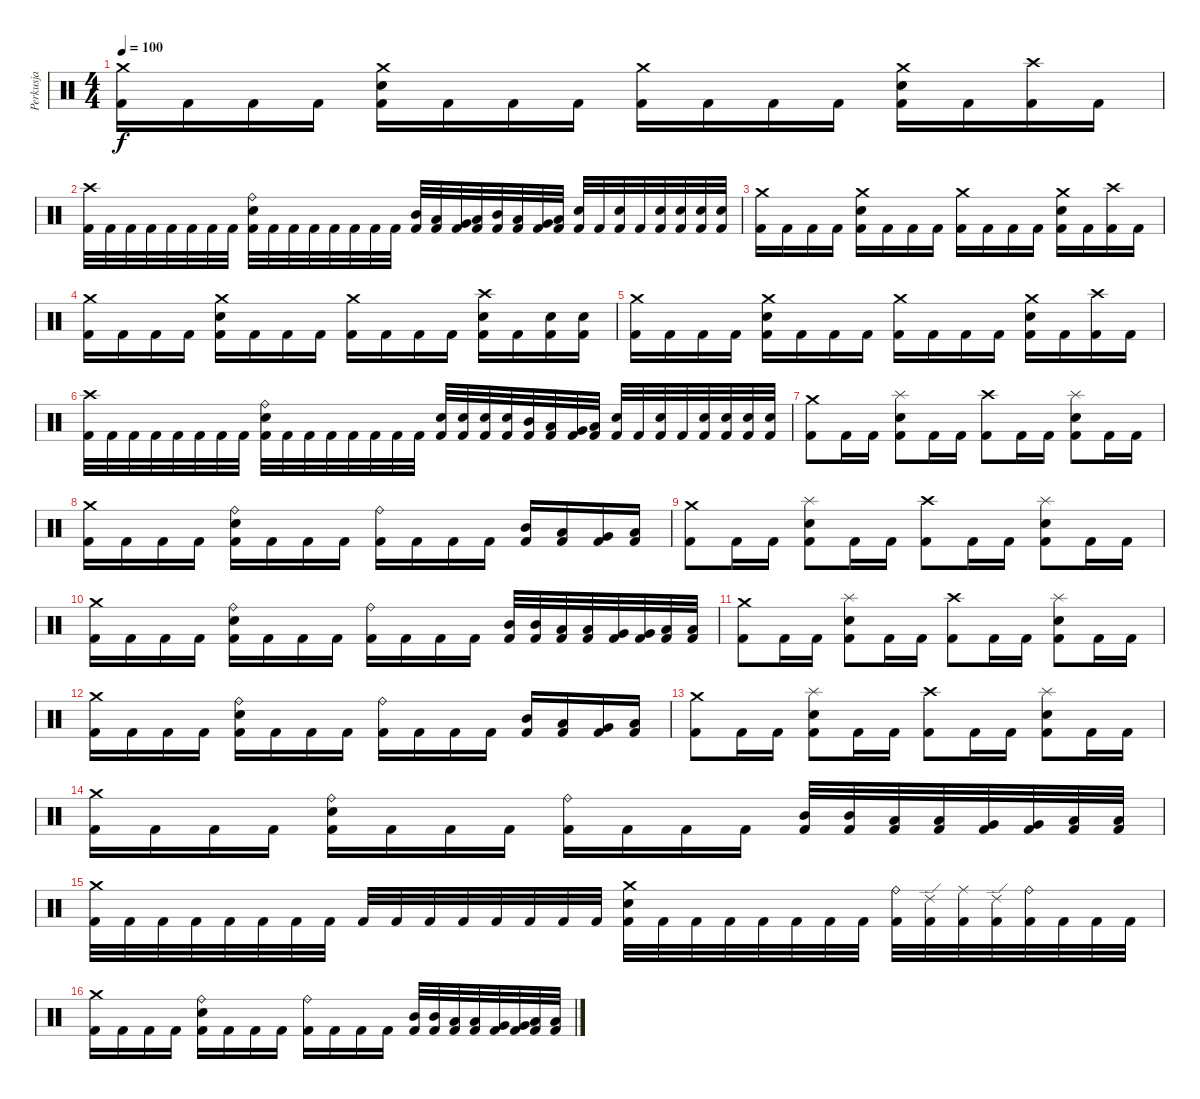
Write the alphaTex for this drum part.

\track ("Perkusja" "Perkusja") {instrument percussion}
\staff {score}
\articulation defaults
\ts (4 4)
\tempo 100
\clef neutral
\ks c
("Crash medium (hit)" "Kick (hit) 2").16{dy f} "Kick (hit) 2".16 "Kick (hit) 2".16 "Kick (hit) 2".16 ("Crash medium (hit)" "Electric Snare (hit)" "Kick (hit) 2").16 "Kick (hit) 2".16 "Kick (hit) 2".16 "Kick (hit) 2".16 ("Crash medium (hit)" "Kick (hit) 2").16 "Kick (hit) 2".16 "Kick (hit) 2".16 "Kick (hit) 2".16 ("Crash medium (hit)" "Electric Snare (hit)" "Kick (hit) 2").16 "Kick (hit) 2".16 ("Crash high (hit)" "Kick (hit) 2").16 "Kick (hit) 2".16 |
("Crash high (hit)" "Kick (hit) 2").32 "Kick (hit) 2".32 "Kick (hit) 2".32 "Kick (hit) 2".32 "Kick (hit) 2".32 "Kick (hit) 2".32 "Kick (hit) 2".32 "Kick (hit) 2".32 ("Ride (bell)" "Electric Snare (hit)" "Kick (hit) 2").32 "Kick (hit) 2".32 "Kick (hit) 2".32 "Kick (hit) 2".32 "Kick (hit) 2".32 "Kick (hit) 2".32 "Kick (hit) 2".32 "Kick (hit) 2".32 ("Mid Tom (hit)" "Kick (hit) 2").32 ("Low Tom (hit)" "Kick (hit) 2").32 ("Very Low Tom (hit)" "Kick (hit) 2").32 ("Low Floor Tom (hit)" "Kick (hit) 2").32 ("Mid Tom (hit)" "Kick (hit) 2").32 ("Low Tom (hit)" "Kick (hit) 2").32 ("Very Low Tom (hit)" "Kick (hit) 2").32 ("Low Floor Tom (hit)" "Kick (hit) 2").32 ("Electric Snare (hit)" "Kick (hit) 2").32 "Kick (hit) 2".32 ("Electric Snare (hit)" "Kick (hit) 2").32 "Kick (hit) 2".32 ("Electric Snare (hit)" "Kick (hit) 2").32 ("Electric Snare (hit)" "Kick (hit) 2").32 ("Electric Snare (hit)" "Kick (hit) 2").32 ("Electric Snare (hit)" "Kick (hit) 2").32 |
("Crash medium (hit)" "Kick (hit) 2").16 "Kick (hit) 2".16 "Kick (hit) 2".16 "Kick (hit) 2".16 ("Crash medium (hit)" "Electric Snare (hit)" "Kick (hit) 2").16 "Kick (hit) 2".16 "Kick (hit) 2".16 "Kick (hit) 2".16 ("Crash medium (hit)" "Kick (hit) 2").16 "Kick (hit) 2".16 "Kick (hit) 2".16 "Kick (hit) 2".16 ("Crash medium (hit)" "Electric Snare (hit)" "Kick (hit) 2").16 "Kick (hit) 2".16 ("Crash high (hit)" "Kick (hit) 2").16 "Kick (hit) 2".16 |
("Crash medium (hit)" "Kick (hit) 2").16 "Kick (hit) 2".16 "Kick (hit) 2".16 "Kick (hit) 2".16 ("Crash medium (hit)" "Electric Snare (hit)" "Kick (hit) 2").16 "Kick (hit) 2".16 "Kick (hit) 2".16 "Kick (hit) 2".16 ("Crash medium (hit)" "Kick (hit) 2").16 "Kick (hit) 2".16 "Kick (hit) 2".16 "Kick (hit) 2".16 ("Crash high (hit)" "Electric Snare (hit)" "Kick (hit) 2").16 "Kick (hit) 2".16 ("Electric Snare (hit)" "Kick (hit) 2").16 ("Electric Snare (hit)" "Kick (hit) 2").16 |
("Crash medium (hit)" "Kick (hit) 2").16 "Kick (hit) 2".16 "Kick (hit) 2".16 "Kick (hit) 2".16 ("Crash medium (hit)" "Electric Snare (hit)" "Kick (hit) 2").16 "Kick (hit) 2".16 "Kick (hit) 2".16 "Kick (hit) 2".16 ("Crash medium (hit)" "Kick (hit) 2").16 "Kick (hit) 2".16 "Kick (hit) 2".16 "Kick (hit) 2".16 ("Crash medium (hit)" "Electric Snare (hit)" "Kick (hit) 2").16 "Kick (hit) 2".16 ("Crash high (hit)" "Kick (hit) 2").16 "Kick (hit) 2".16 |
("Crash high (hit)" "Kick (hit) 2").32 "Kick (hit) 2".32 "Kick (hit) 2".32 "Kick (hit) 2".32 "Kick (hit) 2".32 "Kick (hit) 2".32 "Kick (hit) 2".32 "Kick (hit) 2".32 ("Ride (bell)" "Electric Snare (hit)" "Kick (hit) 2").32 "Kick (hit) 2".32 "Kick (hit) 2".32 "Kick (hit) 2".32 "Kick (hit) 2".32 "Kick (hit) 2".32 "Kick (hit) 2".32 "Kick (hit) 2".32 ("Electric Snare (hit)" "Kick (hit) 2").32 ("Electric Snare (hit)" "Kick (hit) 2").32 ("Electric Snare (hit)" "Kick (hit) 2").32 ("Electric Snare (hit)" "Kick (hit) 2").32 ("Mid Tom (hit)" "Kick (hit) 2").32 ("Low Tom (hit)" "Kick (hit) 2").32 ("Very Low Tom (hit)" "Kick (hit) 2").32 ("Low Floor Tom (hit)" "Kick (hit) 2").32 ("Electric Snare (hit)" "Kick (hit) 2").32 "Kick (hit) 2".32 ("Electric Snare (hit)" "Kick (hit) 2").32 "Kick (hit) 2".32 ("Electric Snare (hit)" "Kick (hit) 2").32 ("Electric Snare (hit)" "Kick (hit) 2").32 ("Electric Snare (hit)" "Kick (hit) 2").32 ("Electric Snare (hit)" "Kick (hit) 2").32 |
("Crash medium (hit)" "Kick (hit) 2").8 "Kick (hit) 2".16 "Kick (hit) 2".16 ("Splash (hit)" "Electric Snare (hit)" "Kick (hit) 2").8 "Kick (hit) 2".16 "Kick (hit) 2".16 ("Crash high (hit)" "Kick (hit) 2").8 "Kick (hit) 2".16 "Kick (hit) 2".16 ("Splash (hit)" "Electric Snare (hit)" "Kick (hit) 2").8 "Kick (hit) 2".16 "Kick (hit) 2".16 |
("Crash medium (hit)" "Kick (hit) 2").16 "Kick (hit) 2".16 "Kick (hit) 2".16 "Kick (hit) 2".16 ("Ride (bell)" "Electric Snare (hit)" "Kick (hit) 2").16 "Kick (hit) 2".16 "Kick (hit) 2".16 "Kick (hit) 2".16 ("Ride (bell)" "Kick (hit) 2").16 "Kick (hit) 2".16 "Kick (hit) 2".16 "Kick (hit) 2".16 ("Mid Tom (hit)" "Kick (hit) 2").16 ("Low Tom (hit)" "Kick (hit) 2").16 ("Very Low Tom (hit)" "Kick (hit) 2").16 ("Low Floor Tom (hit)" "Kick (hit) 2").16 |
("Crash medium (hit)" "Kick (hit) 2").8 "Kick (hit) 2".16 "Kick (hit) 2".16 ("Splash (hit)" "Electric Snare (hit)" "Kick (hit) 2").8 "Kick (hit) 2".16 "Kick (hit) 2".16 ("Crash high (hit)" "Kick (hit) 2").8 "Kick (hit) 2".16 "Kick (hit) 2".16 ("Splash (hit)" "Electric Snare (hit)" "Kick (hit) 2").8 "Kick (hit) 2".16 "Kick (hit) 2".16 |
("Crash medium (hit)" "Kick (hit) 2").16 "Kick (hit) 2".16 "Kick (hit) 2".16 "Kick (hit) 2".16 ("Ride (bell)" "Electric Snare (hit)" "Kick (hit) 2").16 "Kick (hit) 2".16 "Kick (hit) 2".16 "Kick (hit) 2".16 ("Ride (bell)" "Kick (hit) 2").16 "Kick (hit) 2".16 "Kick (hit) 2".16 "Kick (hit) 2".16 ("Mid Tom (hit)" "Kick (hit) 2").32 ("Mid Tom (hit)" "Kick (hit) 2").32 ("Low Tom (hit)" "Kick (hit) 2").32 ("Low Tom (hit)" "Kick (hit) 2").32 ("Very Low Tom (hit)" "Kick (hit) 2").32 ("Very Low Tom (hit)" "Kick (hit) 2").32 ("Low Floor Tom (hit)" "Kick (hit) 2").32 ("Low Floor Tom (hit)" "Kick (hit) 2").32 |
("Crash medium (hit)" "Kick (hit) 2").8 "Kick (hit) 2".16 "Kick (hit) 2".16 ("Splash (hit)" "Electric Snare (hit)" "Kick (hit) 2").8 "Kick (hit) 2".16 "Kick (hit) 2".16 ("Crash high (hit)" "Kick (hit) 2").8 "Kick (hit) 2".16 "Kick (hit) 2".16 ("Splash (hit)" "Electric Snare (hit)" "Kick (hit) 2").8 "Kick (hit) 2".16 "Kick (hit) 2".16 |
("Crash medium (hit)" "Kick (hit) 2").16 "Kick (hit) 2".16 "Kick (hit) 2".16 "Kick (hit) 2".16 ("Ride (bell)" "Electric Snare (hit)" "Kick (hit) 2").16 "Kick (hit) 2".16 "Kick (hit) 2".16 "Kick (hit) 2".16 ("Ride (bell)" "Kick (hit) 2").16 "Kick (hit) 2".16 "Kick (hit) 2".16 "Kick (hit) 2".16 ("Mid Tom (hit)" "Kick (hit) 2").16 ("Low Tom (hit)" "Kick (hit) 2").16 ("Very Low Tom (hit)" "Kick (hit) 2").16 ("Low Floor Tom (hit)" "Kick (hit) 2").16 |
("Crash medium (hit)" "Kick (hit) 2").8 "Kick (hit) 2".16 "Kick (hit) 2".16 ("Splash (hit)" "Electric Snare (hit)" "Kick (hit) 2").8 "Kick (hit) 2".16 "Kick (hit) 2".16 ("Crash high (hit)" "Kick (hit) 2").8 "Kick (hit) 2".16 "Kick (hit) 2".16 ("Splash (hit)" "Electric Snare (hit)" "Kick (hit) 2").8 "Kick (hit) 2".16 "Kick (hit) 2".16 |
("Crash medium (hit)" "Kick (hit) 2").16 "Kick (hit) 2".16 "Kick (hit) 2".16 "Kick (hit) 2".16 ("Ride (bell)" "Electric Snare (hit)" "Kick (hit) 2").16 "Kick (hit) 2".16 "Kick (hit) 2".16 "Kick (hit) 2".16 ("Ride (bell)" "Kick (hit) 2").16 "Kick (hit) 2".16 "Kick (hit) 2".16 "Kick (hit) 2".16 ("Mid Tom (hit)" "Kick (hit) 2").32 ("Mid Tom (hit)" "Kick (hit) 2").32 ("Low Tom (hit)" "Kick (hit) 2").32 ("Low Tom (hit)" "Kick (hit) 2").32 ("Very Low Tom (hit)" "Kick (hit) 2").32 ("Very Low Tom (hit)" "Kick (hit) 2").32 ("Low Floor Tom (hit)" "Kick (hit) 2").32 ("Low Floor Tom (hit)" "Kick (hit) 2").32 |
("Crash medium (hit)" "Kick (hit) 2").32 "Kick (hit) 2".32 "Kick (hit) 2".32 "Kick (hit) 2".32 "Kick (hit) 2".32 "Kick (hit) 2".32 "Kick (hit) 2".32 "Kick (hit) 2".32 "Kick (hit) 2".32 "Kick (hit) 2".32 "Kick (hit) 2".32 "Kick (hit) 2".32 "Kick (hit) 2".32 "Kick (hit) 2".32 "Kick (hit) 2".32 "Kick (hit) 2".32 ("Crash medium (hit)" "Electric Snare (hit)" "Kick (hit) 2").32 "Kick (hit) 2".32 "Kick (hit) 2".32 "Kick (hit) 2".32 "Kick (hit) 2".32 "Kick (hit) 2".32 "Kick (hit) 2".32 "Kick (hit) 2".32 ("Ride (bell)" "Kick (hit) 2").32 ("Ride (edge) 2" "Kick (hit) 2").32 ("Ride (middle)" "Kick (hit) 2").32 ("Ride (edge) 2" "Kick (hit) 2").32 ("Ride (bell)" "Kick (hit) 2").32 "Kick (hit) 2".32 "Kick (hit) 2".32 "Kick (hit) 2".32 |
("Crash medium (hit)" "Kick (hit) 2").16 "Kick (hit) 2".16 "Kick (hit) 2".16 "Kick (hit) 2".16 ("Ride (bell)" "Electric Snare (hit)" "Kick (hit) 2").16 "Kick (hit) 2".16 "Kick (hit) 2".16 "Kick (hit) 2".16 ("Ride (bell)" "Kick (hit) 2").16 "Kick (hit) 2".16 "Kick (hit) 2".16 "Kick (hit) 2".16 ("Mid Tom (hit)" "Kick (hit) 2").32 ("Mid Tom (hit)" "Kick (hit) 2").32 ("Low Tom (hit)" "Kick (hit) 2").32 ("Low Tom (hit)" "Kick (hit) 2").32 ("Very Low Tom (hit)" "Kick (hit) 2").32 ("Very Low Tom (hit)" "Kick (hit) 2").32 ("Low Floor Tom (hit)" "Kick (hit) 2").32 ("Low Floor Tom (hit)" "Kick (hit) 2").32
